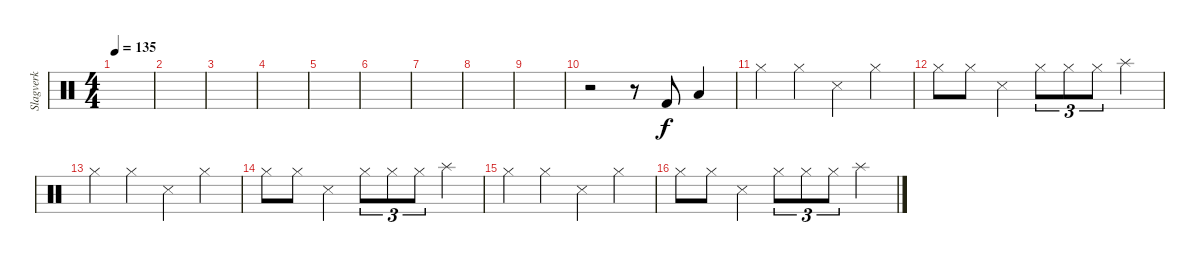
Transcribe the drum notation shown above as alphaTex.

\track ("Slagverk" "Slagverk") {instrument percussion}
\staff {score}
\articulation defaults
\ts (4 4)
\tempo 135
\clef neutral
\ks c
|
|
|
|
|
|
|
|
|
r.2 r.8 "Kick (hit) 2".8 "Low Tom (hit)".4 |
"Hi-Hat (closed)".4 "Hi-Hat (closed)".4 "Snare (side stick) 3".4 "Hi-Hat (closed)".4 |
"Hi-Hat (closed)".8 "Hi-Hat (closed)".8 "Snare (side stick) 3".4 "Hi-Hat (closed)".8{tu (3 2)} "Hi-Hat (closed)".8{tu (3 2)} "Hi-Hat (closed)".8{tu (3 2)} "Splash (hit)".4 |
"Hi-Hat (closed)".4 "Hi-Hat (closed)".4 "Snare (side stick) 3".4 "Hi-Hat (closed)".4 |
"Hi-Hat (closed)".8 "Hi-Hat (closed)".8 "Snare (side stick) 3".4 "Hi-Hat (closed)".8{tu (3 2)} "Hi-Hat (closed)".8{tu (3 2)} "Hi-Hat (closed)".8{tu (3 2)} "Splash (hit)".4 |
"Hi-Hat (closed)".4 "Hi-Hat (closed)".4 "Snare (side stick) 3".4 "Hi-Hat (closed)".4 |
"Hi-Hat (closed)".8 "Hi-Hat (closed)".8 "Snare (side stick) 3".4 "Hi-Hat (closed)".8{tu (3 2)} "Hi-Hat (closed)".8{tu (3 2)} "Hi-Hat (closed)".8{tu (3 2)} "Splash (hit)".4
